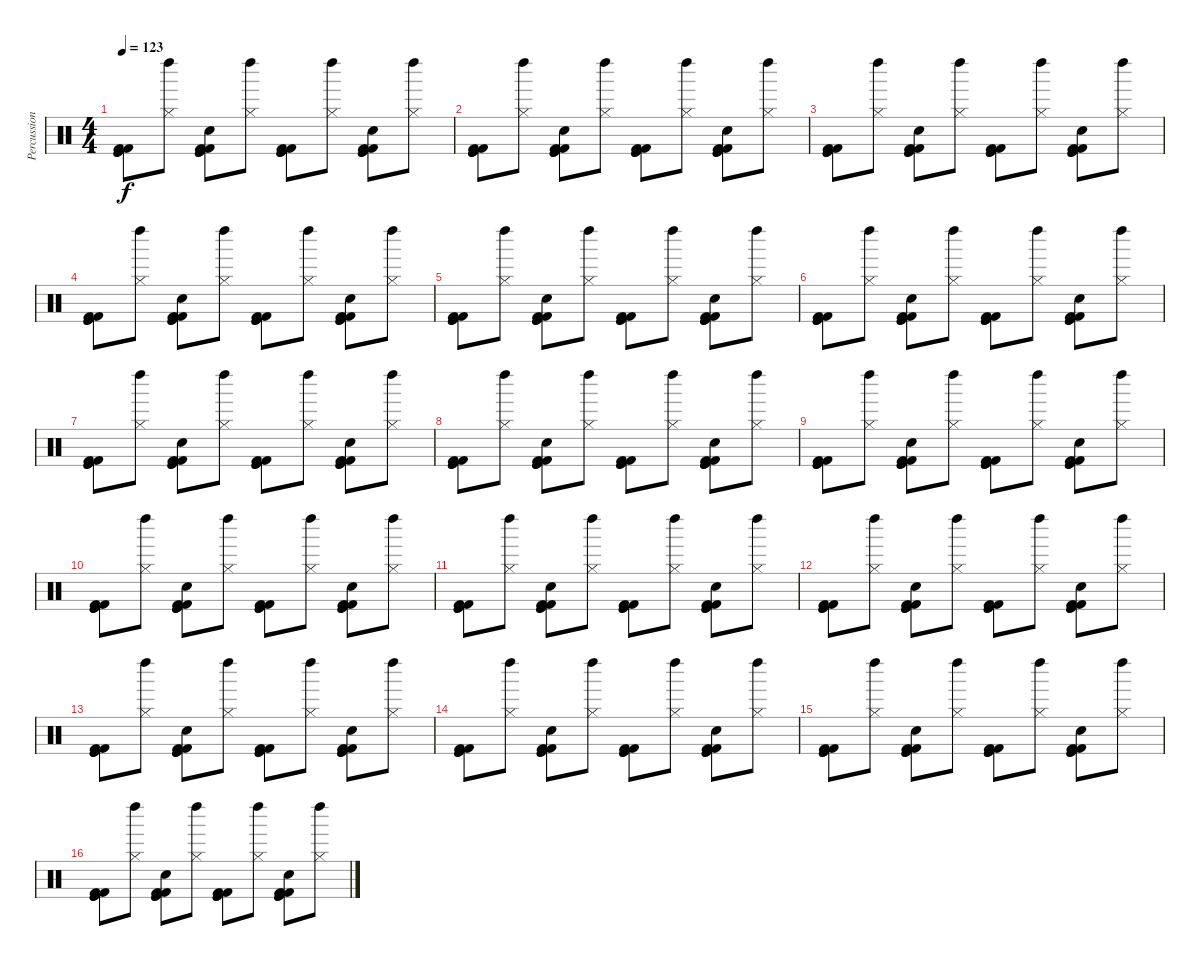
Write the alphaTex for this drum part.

\track ("Percussion" "Percussion") {instrument percussion}
\staff {score}
\articulation defaults
\ts (4 4)
\tempo 123
\clef neutral
\ks c
("Kick (hit)" "Kick (hit)" "Kick (hit) 2" "Kick (hit) 2").8{dy f} ("Left Maraca (hit)" "Hi-Hat (closed)").8 ("Kick (hit)" "Kick (hit)" "Hand Clap (hit)" "Kick (hit) 2" "Kick (hit) 2").8 ("Left Maraca (hit)" "Hi-Hat (closed)").8 ("Kick (hit)" "Kick (hit)" "Kick (hit) 2" "Kick (hit) 2").8 ("Left Maraca (hit)" "Hi-Hat (closed)").8 ("Kick (hit)" "Kick (hit)" "Hand Clap (hit)" "Kick (hit) 2" "Kick (hit) 2").8 ("Left Maraca (hit)" "Hi-Hat (closed)").8 |
("Kick (hit)" "Kick (hit)" "Kick (hit) 2" "Kick (hit) 2").8 ("Left Maraca (hit)" "Hi-Hat (closed)").8 ("Kick (hit)" "Kick (hit)" "Hand Clap (hit)" "Kick (hit) 2" "Kick (hit) 2").8 ("Left Maraca (hit)" "Hi-Hat (closed)").8 ("Kick (hit)" "Kick (hit)" "Kick (hit) 2" "Kick (hit) 2").8 ("Left Maraca (hit)" "Hi-Hat (closed)").8 ("Kick (hit)" "Kick (hit)" "Hand Clap (hit)" "Kick (hit) 2" "Kick (hit) 2").8 ("Left Maraca (hit)" "Hi-Hat (closed)").8 |
("Kick (hit)" "Kick (hit)" "Kick (hit) 2" "Kick (hit) 2").8 ("Left Maraca (hit)" "Hi-Hat (closed)").8 ("Kick (hit)" "Kick (hit)" "Kick (hit) 2" "Hand Clap (hit)" "Kick (hit) 2").8 ("Left Maraca (hit)" "Hi-Hat (closed)").8 ("Kick (hit)" "Kick (hit)" "Kick (hit) 2" "Kick (hit) 2").8 ("Left Maraca (hit)" "Hi-Hat (closed)").8 ("Kick (hit)" "Kick (hit)" "Hand Clap (hit)" "Kick (hit) 2" "Kick (hit) 2").8 ("Left Maraca (hit)" "Hi-Hat (closed)").8 |
("Kick (hit)" "Kick (hit)" "Kick (hit) 2" "Kick (hit) 2").8 ("Left Maraca (hit)" "Hi-Hat (closed)").8 ("Kick (hit)" "Kick (hit)" "Hand Clap (hit)" "Kick (hit) 2" "Kick (hit) 2").8 ("Left Maraca (hit)" "Hi-Hat (closed)").8 ("Kick (hit)" "Kick (hit)" "Kick (hit) 2" "Kick (hit) 2").8 ("Left Maraca (hit)" "Hi-Hat (closed)").8 ("Kick (hit)" "Kick (hit)" "Hand Clap (hit)" "Kick (hit) 2" "Kick (hit) 2").8 ("Left Maraca (hit)" "Hi-Hat (closed)").8 |
("Kick (hit)" "Kick (hit)" "Kick (hit) 2" "Kick (hit) 2").8 ("Left Maraca (hit)" "Hi-Hat (closed)").8 ("Kick (hit)" "Kick (hit)" "Hand Clap (hit)" "Kick (hit) 2" "Kick (hit) 2").8 ("Left Maraca (hit)" "Hi-Hat (closed)").8 ("Kick (hit)" "Kick (hit)" "Kick (hit) 2" "Kick (hit) 2").8 ("Left Maraca (hit)" "Hi-Hat (closed)").8 ("Kick (hit)" "Kick (hit)" "Hand Clap (hit)" "Kick (hit) 2" "Kick (hit) 2").8 ("Left Maraca (hit)" "Hi-Hat (closed)").8 |
("Kick (hit)" "Kick (hit)" "Kick (hit) 2" "Kick (hit) 2").8 ("Left Maraca (hit)" "Hi-Hat (closed)").8 ("Hand Clap (hit)" "Kick (hit)" "Kick (hit)" "Kick (hit) 2" "Kick (hit) 2").8 ("Left Maraca (hit)" "Hi-Hat (closed)").8 ("Kick (hit)" "Kick (hit)" "Kick (hit) 2" "Kick (hit) 2").8 ("Left Maraca (hit)" "Hi-Hat (closed)").8 ("Kick (hit)" "Kick (hit)" "Hand Clap (hit)" "Kick (hit) 2" "Kick (hit) 2").8 ("Left Maraca (hit)" "Hi-Hat (closed)").8 |
("Kick (hit)" "Kick (hit)" "Kick (hit) 2" "Kick (hit) 2").8 ("Left Maraca (hit)" "Hi-Hat (closed)").8 ("Kick (hit)" "Kick (hit)" "Hand Clap (hit)" "Kick (hit) 2" "Kick (hit) 2").8 ("Left Maraca (hit)" "Hi-Hat (closed)").8 ("Kick (hit)" "Kick (hit) 2" "Kick (hit)" "Kick (hit) 2").8 ("Left Maraca (hit)" "Hi-Hat (closed)").8 ("Kick (hit)" "Kick (hit)" "Hand Clap (hit)" "Kick (hit) 2" "Kick (hit) 2").8 ("Left Maraca (hit)" "Hi-Hat (closed)").8 |
("Kick (hit)" "Kick (hit)" "Kick (hit) 2" "Kick (hit) 2").8 ("Left Maraca (hit)" "Hi-Hat (closed)").8 ("Kick (hit)" "Kick (hit)" "Hand Clap (hit)" "Kick (hit) 2" "Kick (hit) 2").8 ("Left Maraca (hit)" "Hi-Hat (closed)").8 ("Kick (hit)" "Kick (hit)" "Kick (hit) 2" "Kick (hit) 2").8 ("Left Maraca (hit)" "Hi-Hat (closed)").8 ("Kick (hit)" "Kick (hit)" "Hand Clap (hit)" "Kick (hit) 2" "Kick (hit) 2").8 ("Left Maraca (hit)" "Hi-Hat (closed)").8 |
("Kick (hit)" "Kick (hit)" "Kick (hit) 2" "Kick (hit) 2").8 ("Left Maraca (hit)" "Hi-Hat (closed)").8 ("Kick (hit)" "Kick (hit)" "Hand Clap (hit)" "Kick (hit) 2" "Kick (hit) 2").8 ("Left Maraca (hit)" "Hi-Hat (closed)").8 ("Kick (hit)" "Kick (hit)" "Kick (hit) 2" "Kick (hit) 2").8 ("Left Maraca (hit)" "Hi-Hat (closed)").8 ("Hand Clap (hit)" "Kick (hit)" "Kick (hit)" "Kick (hit) 2" "Kick (hit) 2").8 ("Left Maraca (hit)" "Hi-Hat (closed)").8 |
("Kick (hit)" "Kick (hit)" "Kick (hit) 2" "Kick (hit) 2").8 ("Left Maraca (hit)" "Hi-Hat (closed)").8 ("Kick (hit)" "Kick (hit)" "Hand Clap (hit)" "Kick (hit) 2" "Kick (hit) 2").8 ("Left Maraca (hit)" "Hi-Hat (closed)").8 ("Kick (hit)" "Kick (hit)" "Kick (hit) 2" "Kick (hit) 2").8 ("Left Maraca (hit)" "Hi-Hat (closed)").8 ("Kick (hit)" "Kick (hit)" "Hand Clap (hit)" "Kick (hit) 2" "Kick (hit) 2").8 ("Left Maraca (hit)" "Hi-Hat (closed)").8 |
("Kick (hit)" "Kick (hit)" "Kick (hit) 2" "Kick (hit) 2").8 ("Left Maraca (hit)" "Hi-Hat (closed)").8 ("Kick (hit)" "Kick (hit)" "Kick (hit) 2" "Kick (hit) 2" "Hand Clap (hit)").8 ("Left Maraca (hit)" "Hi-Hat (closed)").8 ("Kick (hit)" "Kick (hit)" "Kick (hit) 2" "Kick (hit) 2").8 ("Left Maraca (hit)" "Hi-Hat (closed)").8 ("Kick (hit)" "Kick (hit)" "Hand Clap (hit)" "Kick (hit) 2" "Kick (hit) 2").8 ("Left Maraca (hit)" "Hi-Hat (closed)").8 |
("Kick (hit)" "Kick (hit)" "Kick (hit) 2" "Kick (hit) 2").8 ("Left Maraca (hit)" "Hi-Hat (closed)").8 ("Kick (hit)" "Kick (hit)" "Hand Clap (hit)" "Kick (hit) 2" "Kick (hit) 2").8 ("Left Maraca (hit)" "Hi-Hat (closed)").8 ("Kick (hit)" "Kick (hit)" "Kick (hit) 2" "Kick (hit) 2").8 ("Left Maraca (hit)" "Hi-Hat (closed)").8 ("Kick (hit)" "Kick (hit)" "Hand Clap (hit)" "Kick (hit) 2" "Kick (hit) 2").8 ("Left Maraca (hit)" "Hi-Hat (closed)").8 |
("Kick (hit)" "Kick (hit)" "Kick (hit) 2" "Kick (hit) 2").8 ("Left Maraca (hit)" "Hi-Hat (closed)").8 ("Kick (hit)" "Kick (hit)" "Hand Clap (hit)" "Kick (hit) 2" "Kick (hit) 2").8 ("Left Maraca (hit)" "Hi-Hat (closed)").8 ("Kick (hit)" "Kick (hit)" "Kick (hit) 2" "Kick (hit) 2").8 ("Left Maraca (hit)" "Hi-Hat (closed)").8 ("Kick (hit)" "Kick (hit)" "Hand Clap (hit)" "Kick (hit) 2" "Kick (hit) 2").8 ("Left Maraca (hit)" "Hi-Hat (closed)").8 |
("Kick (hit)" "Kick (hit)" "Kick (hit) 2" "Kick (hit) 2").8 ("Left Maraca (hit)" "Hi-Hat (closed)").8 ("Kick (hit)" "Kick (hit)" "Hand Clap (hit)" "Kick (hit) 2" "Kick (hit) 2").8 ("Left Maraca (hit)" "Hi-Hat (closed)").8 ("Kick (hit)" "Kick (hit)" "Kick (hit) 2" "Kick (hit) 2").8 ("Left Maraca (hit)" "Hi-Hat (closed)").8 ("Kick (hit)" "Kick (hit)" "Hand Clap (hit)" "Kick (hit) 2" "Kick (hit) 2").8 ("Left Maraca (hit)" "Hi-Hat (closed)").8 |
("Kick (hit)" "Kick (hit)" "Kick (hit) 2" "Kick (hit) 2").8 ("Left Maraca (hit)" "Hi-Hat (closed)").8 ("Kick (hit)" "Kick (hit)" "Hand Clap (hit)" "Kick (hit) 2" "Kick (hit) 2").8 ("Left Maraca (hit)" "Hi-Hat (closed)").8 ("Kick (hit)" "Kick (hit) 2" "Kick (hit)" "Kick (hit) 2").8 ("Left Maraca (hit)" "Hi-Hat (closed)").8 ("Kick (hit)" "Kick (hit)" "Hand Clap (hit)" "Kick (hit) 2" "Kick (hit) 2").8 ("Left Maraca (hit)" "Hi-Hat (closed)").8 |
("Kick (hit)" "Kick (hit)" "Kick (hit) 2" "Kick (hit) 2").8 ("Left Maraca (hit)" "Hi-Hat (closed)").8 ("Kick (hit)" "Kick (hit)" "Hand Clap (hit)" "Kick (hit) 2" "Kick (hit) 2").8 ("Left Maraca (hit)" "Hi-Hat (closed)").8 ("Kick (hit)" "Kick (hit)" "Kick (hit) 2" "Kick (hit) 2").8 ("Left Maraca (hit)" "Hi-Hat (closed)").8 ("Kick (hit)" "Kick (hit)" "Hand Clap (hit)" "Kick (hit) 2" "Kick (hit) 2").8 ("Left Maraca (hit)" "Hi-Hat (closed)").8
